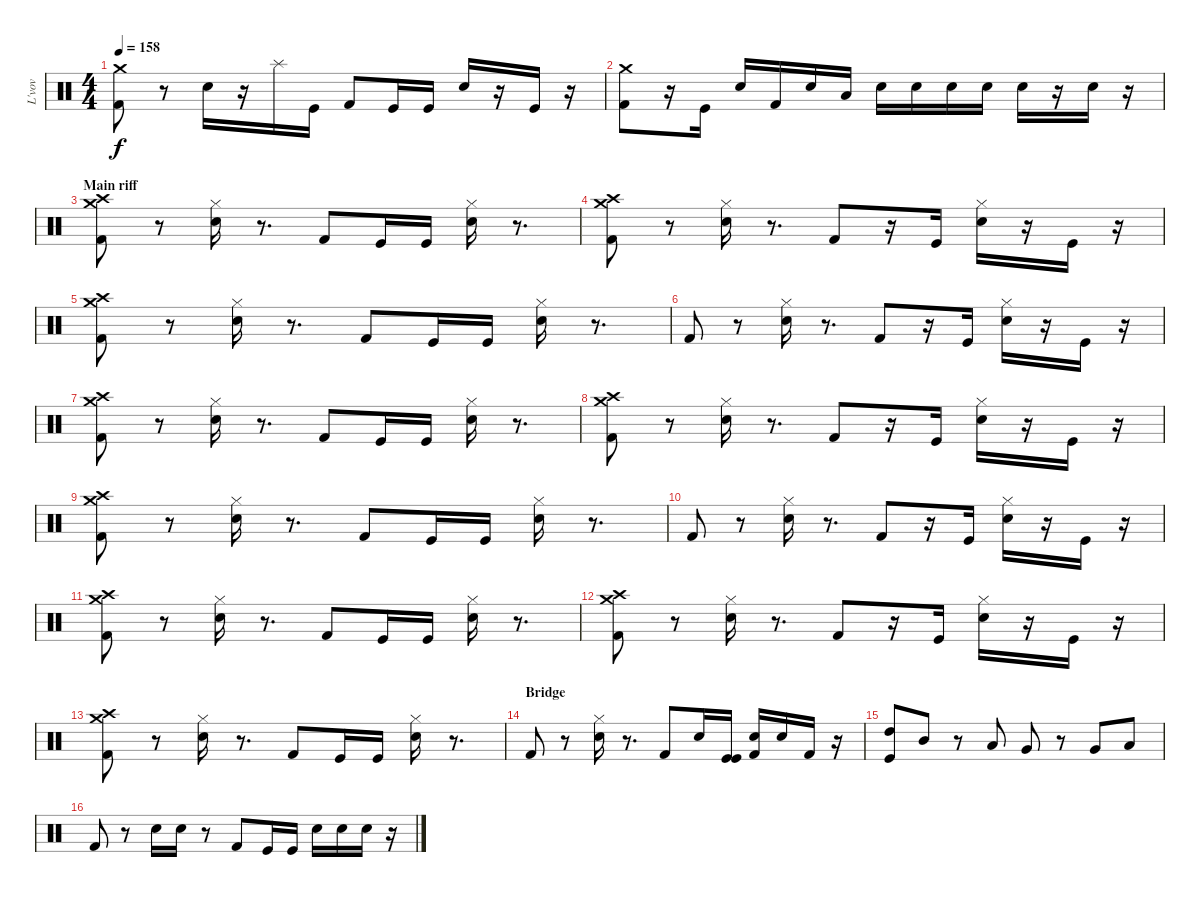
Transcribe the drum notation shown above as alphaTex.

\track ("L'vov " "L'vov ") {instrument percussion}
\staff {score}
\articulation defaults
\ts (4 4)
\tempo 158
\clef neutral
\ks c
("Crash medium (hit)" "Kick (hit) 2").8{dy f} r.8 "Snare (hit) 2".16 r.16 "Splash (hit)".16 "Kick (hit)".16 "Kick (hit) 2".8 "Kick (hit)".16 "Kick (hit)".16 "Snare (hit) 2".16 r.16 "Kick (hit)".16 r.16 |
("Crash medium (hit)" "Kick (hit) 2").8 r.16 "Kick (hit)".16 "Electric Snare (hit)".16 "Kick (hit) 2".16 "Snare (hit) 2".16 "Low Tom (hit)".16 "Snare (hit) 2".16 "Snare (hit) 2".16 "Snare (hit) 2".16 "Snare (hit) 2".16 "Electric Snare (hit)".16 r.16 "Electric Snare (hit)".16 r.16 |
\section ("" "Main riff")
("Kick (hit) 2" "Crash high (hit)" "Crash medium (hit)").8 r.8 ("Snare (hit) 2" "Hi-Hat (closed)").16 r.8{d} "Kick (hit) 2".8 "Kick (hit)".16 "Kick (hit)".16 ("Snare (hit) 2" "Hi-Hat (closed)").16 r.8{d} |
("Kick (hit) 2" "Crash high (hit)" "Crash medium (hit)").8 r.8 ("Snare (hit) 2" "Hi-Hat (closed)").16 r.8{d} "Kick (hit) 2".8 r.16 "Kick (hit)".16 ("Electric Snare (hit)" "Hi-Hat (closed)").16 r.16 "Kick (hit)".16 r.16 |
("Kick (hit) 2" "Crash high (hit)" "Crash medium (hit)").8 r.8 ("Snare (hit) 2" "Hi-Hat (closed)").16 r.8{d} "Kick (hit) 2".8 "Kick (hit)".16 "Kick (hit)".16 ("Snare (hit) 2" "Hi-Hat (closed)").16 r.8{d} |
"Kick (hit) 2".8 r.8 ("Snare (hit) 2" "Hi-Hat (closed)").16 r.8{d} "Kick (hit) 2".8 r.16 "Kick (hit)".16 ("Electric Snare (hit)" "Hi-Hat (closed)").16 r.16 "Kick (hit)".16 r.16 |
("Kick (hit) 2" "Crash high (hit)" "Crash medium (hit)").8 r.8 ("Snare (hit) 2" "Hi-Hat (closed)").16 r.8{d} "Kick (hit) 2".8 "Kick (hit)".16 "Kick (hit)".16 ("Snare (hit) 2" "Hi-Hat (closed)").16 r.8{d} |
("Kick (hit) 2" "Crash high (hit)" "Crash medium (hit)").8 r.8 ("Snare (hit) 2" "Hi-Hat (closed)").16 r.8{d} "Kick (hit) 2".8 r.16 "Kick (hit)".16 ("Electric Snare (hit)" "Hi-Hat (closed)").16 r.16 "Kick (hit)".16 r.16 |
("Kick (hit) 2" "Crash high (hit)" "Crash medium (hit)").8 r.8 ("Snare (hit) 2" "Hi-Hat (closed)").16 r.8{d} "Kick (hit) 2".8 "Kick (hit)".16 "Kick (hit)".16 ("Snare (hit) 2" "Hi-Hat (closed)").16 r.8{d} |
"Kick (hit) 2".8 r.8 ("Snare (hit) 2" "Hi-Hat (closed)").16 r.8{d} "Kick (hit) 2".8 r.16 "Kick (hit)".16 ("Electric Snare (hit)" "Hi-Hat (closed)").16 r.16 "Kick (hit)".16 r.16 |
("Kick (hit) 2" "Crash high (hit)" "Crash medium (hit)").8 r.8 ("Snare (hit) 2" "Hi-Hat (closed)").16 r.8{d} "Kick (hit) 2".8 "Kick (hit)".16 "Kick (hit)".16 ("Snare (hit) 2" "Hi-Hat (closed)").16 r.8{d} |
("Kick (hit) 2" "Crash high (hit)" "Crash medium (hit)").8 r.8 ("Snare (hit) 2" "Hi-Hat (closed)").16 r.8{d} "Kick (hit) 2".8 r.16 "Kick (hit)".16 ("Electric Snare (hit)" "Hi-Hat (closed)").16 r.16 "Kick (hit)".16 r.16 |
("Kick (hit) 2" "Crash high (hit)" "Crash medium (hit)").8 r.8 ("Snare (hit) 2" "Hi-Hat (closed)").16 r.8{d} "Kick (hit) 2".8 "Kick (hit)".16 "Kick (hit)".16 ("Snare (hit) 2" "Hi-Hat (closed)").16 r.8{d} |
\section ("" "Bridge")
"Kick (hit) 2".8 r.8 ("Snare (hit) 2" "Hi-Hat (closed)").16 r.8{d} "Kick (hit) 2".8 "Electric Snare (hit)".16 ("Kick (hit)" "Kick (hit)").16 ("Electric Snare (hit)" "Kick (hit) 2").16 "Electric Snare (hit)".16 "Kick (hit) 2".16 r.16 |
("Kick (hit)" "High Tom (hit)").8 "Mid Tom (hit)".8 r.8 "Low Tom (hit)".8 "Very Low Tom (hit)".8 r.8 "Very Low Tom (hit)".8 "Low Floor Tom (hit)".8 |
"Kick (hit) 2".8 r.8 "Snare (hit) 2".16 "Snare (hit) 2".16 r.8 "Kick (hit) 2".8 "Kick (hit)".16 "Kick (hit)".16 "Snare (hit) 2".16 "Electric Snare (hit)".16 "Electric Snare (hit)".16 r.16
